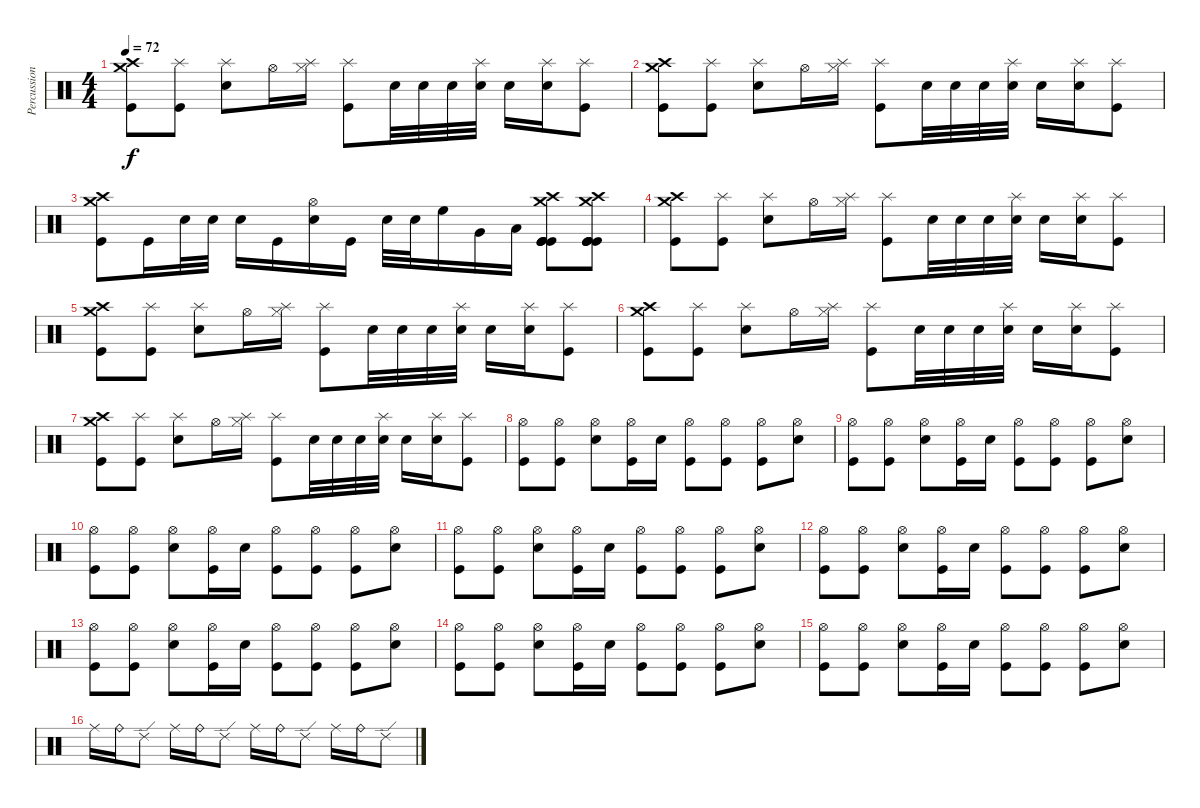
\track ("Percussions" "Percussion") {instrument percussion}
\staff {score}
\articulation defaults
\ts (4 4)
\tempo 72
\clef neutral
\ks c
("Crash medium (hit)" "Crash high (hit)" "Kick (hit)").8{dy f} ("Splash (hit)" "Kick (hit)").8 ("Splash (hit)" "Electric Snare (hit)").8 "Hi-Hat (open)".16 ("Hi-Hat (closed)" "Splash (hit)").16 ("Splash (hit)" "Kick (hit)").8 "Electric Snare (hit)".32 "Electric Snare (hit)".32 "Electric Snare (hit)".32 ("Splash (hit)" "Electric Snare (hit)").32 "Electric Snare (hit)".16 ("Splash (hit)" "Electric Snare (hit)").16 ("Splash (hit)" "Kick (hit)").8 |
("Crash medium (hit)" "Crash high (hit)" "Kick (hit)").8 ("Splash (hit)" "Kick (hit)").8 ("Splash (hit)" "Electric Snare (hit)").8 "Hi-Hat (open)".16 ("Hi-Hat (closed)" "Splash (hit)").16 ("Splash (hit)" "Kick (hit)").8 "Electric Snare (hit)".32 "Electric Snare (hit)".32 "Electric Snare (hit)".32 ("Splash (hit)" "Electric Snare (hit)").32 "Electric Snare (hit)".16 ("Splash (hit)" "Electric Snare (hit)").16 ("Splash (hit)" "Kick (hit)").8 |
("Crash medium (hit)" "Crash high (hit)" "Kick (hit)").8 "Kick (hit)".16 "Electric Snare (hit)".32 "Snare (hit) 2".32 "Electric Snare (hit)".16 "Kick (hit)".16 ("Hi-Hat (open)" "Electric Snare (hit)").16 "Kick (hit)".16 "Electric Snare (hit)".32 "Snare (hit) 2".32 "High Floor Tom (hit)".16 "Very Low Tom (hit)".16 "Low Floor Tom (hit)".16 ("Crash medium (hit)" "Crash high (hit)" "Kick (hit)" "Kick (hit)" "Kick (hit)" "Kick (hit)").8 ("Crash medium (hit)" "Crash high (hit)" "Kick (hit)" "Kick (hit)" "Kick (hit)" "Kick (hit)").8 |
("Crash medium (hit)" "Crash high (hit)" "Kick (hit)").8 ("Splash (hit)" "Kick (hit)").8 ("Splash (hit)" "Electric Snare (hit)").8 "Hi-Hat (open)".16 ("Hi-Hat (closed)" "Splash (hit)").16 ("Splash (hit)" "Kick (hit)").8 "Electric Snare (hit)".32 "Electric Snare (hit)".32 "Electric Snare (hit)".32 ("Splash (hit)" "Electric Snare (hit)").32 "Electric Snare (hit)".16 ("Splash (hit)" "Electric Snare (hit)").16 ("Splash (hit)" "Kick (hit)").8 |
("Crash medium (hit)" "Crash high (hit)" "Kick (hit)").8 ("Splash (hit)" "Kick (hit)").8 ("Splash (hit)" "Electric Snare (hit)").8 "Hi-Hat (open)".16 ("Hi-Hat (closed)" "Splash (hit)").16 ("Splash (hit)" "Kick (hit)").8 "Electric Snare (hit)".32 "Electric Snare (hit)".32 "Electric Snare (hit)".32 ("Splash (hit)" "Electric Snare (hit)").32 "Electric Snare (hit)".16 ("Splash (hit)" "Electric Snare (hit)").16 ("Splash (hit)" "Kick (hit)").8 |
("Crash medium (hit)" "Crash high (hit)" "Kick (hit)").8 ("Splash (hit)" "Kick (hit)").8 ("Splash (hit)" "Electric Snare (hit)").8 "Hi-Hat (open)".16 ("Hi-Hat (closed)" "Splash (hit)").16 ("Splash (hit)" "Kick (hit)").8 "Electric Snare (hit)".32 "Electric Snare (hit)".32 "Electric Snare (hit)".32 ("Splash (hit)" "Electric Snare (hit)").32 "Electric Snare (hit)".16 ("Splash (hit)" "Electric Snare (hit)").16 ("Splash (hit)" "Kick (hit)").8 |
("Crash medium (hit)" "Crash high (hit)" "Kick (hit)").8 ("Splash (hit)" "Kick (hit)").8 ("Splash (hit)" "Electric Snare (hit)").8 "Hi-Hat (open)".16 ("Hi-Hat (closed)" "Splash (hit)").16 ("Splash (hit)" "Kick (hit)").8 "Electric Snare (hit)".32 "Electric Snare (hit)".32 "Electric Snare (hit)".32 ("Splash (hit)" "Electric Snare (hit)").32 "Electric Snare (hit)".16 ("Splash (hit)" "Electric Snare (hit)").16 ("Splash (hit)" "Kick (hit)").8 |
("Hi-Hat (open)" "Kick (hit)").8 ("Hi-Hat (open)" "Kick (hit)").8 ("Hi-Hat (open)" "Electric Snare (hit)").8 ("Hi-Hat (open)" "Kick (hit)").16 "Electric Snare (hit)".16 ("Hi-Hat (open)" "Kick (hit)").8 ("Hi-Hat (open)" "Kick (hit)").8 ("Hi-Hat (open)" "Kick (hit)").8 ("Hi-Hat (open)" "Electric Snare (hit)").8 |
("Hi-Hat (open)" "Kick (hit)").8 ("Hi-Hat (open)" "Kick (hit)").8 ("Hi-Hat (open)" "Electric Snare (hit)").8 ("Hi-Hat (open)" "Kick (hit)").16 "Electric Snare (hit)".16 ("Hi-Hat (open)" "Kick (hit)").8 ("Hi-Hat (open)" "Kick (hit)").8 ("Hi-Hat (open)" "Kick (hit)").8 ("Hi-Hat (open)" "Electric Snare (hit)").8 |
("Hi-Hat (open)" "Kick (hit)").8 ("Hi-Hat (open)" "Kick (hit)").8 ("Hi-Hat (open)" "Electric Snare (hit)").8 ("Hi-Hat (open)" "Kick (hit)").16 "Electric Snare (hit)".16 ("Hi-Hat (open)" "Kick (hit)").8 ("Hi-Hat (open)" "Kick (hit)").8 ("Hi-Hat (open)" "Kick (hit)").8 ("Hi-Hat (open)" "Electric Snare (hit)").8 |
("Hi-Hat (open)" "Kick (hit)").8 ("Hi-Hat (open)" "Kick (hit)").8 ("Hi-Hat (open)" "Electric Snare (hit)").8 ("Hi-Hat (open)" "Kick (hit)").16 "Electric Snare (hit)".16 ("Hi-Hat (open)" "Kick (hit)").8 ("Hi-Hat (open)" "Kick (hit)").8 ("Hi-Hat (open)" "Kick (hit)").8 ("Hi-Hat (open)" "Electric Snare (hit)").8 |
("Hi-Hat (open)" "Kick (hit)").8 ("Hi-Hat (open)" "Kick (hit)").8 ("Hi-Hat (open)" "Electric Snare (hit)").8 ("Hi-Hat (open)" "Kick (hit)").16 "Electric Snare (hit)".16 ("Hi-Hat (open)" "Kick (hit)").8 ("Hi-Hat (open)" "Kick (hit)").8 ("Hi-Hat (open)" "Kick (hit)").8 ("Hi-Hat (open)" "Electric Snare (hit)").8 |
("Hi-Hat (open)" "Kick (hit)").8 ("Hi-Hat (open)" "Kick (hit)").8 ("Hi-Hat (open)" "Electric Snare (hit)").8 ("Hi-Hat (open)" "Kick (hit)").16 "Electric Snare (hit)".16 ("Hi-Hat (open)" "Kick (hit)").8 ("Hi-Hat (open)" "Kick (hit)").8 ("Hi-Hat (open)" "Kick (hit)").8 ("Hi-Hat (open)" "Electric Snare (hit)").8 |
("Hi-Hat (open)" "Kick (hit)").8 ("Hi-Hat (open)" "Kick (hit)").8 ("Hi-Hat (open)" "Electric Snare (hit)").8 ("Hi-Hat (open)" "Kick (hit)").16 "Electric Snare (hit)".16 ("Hi-Hat (open)" "Kick (hit)").8 ("Hi-Hat (open)" "Kick (hit)").8 ("Hi-Hat (open)" "Kick (hit)").8 ("Hi-Hat (open)" "Electric Snare (hit)").8 |
("Hi-Hat (open)" "Kick (hit)").8 ("Hi-Hat (open)" "Kick (hit)").8 ("Hi-Hat (open)" "Electric Snare (hit)").8 ("Hi-Hat (open)" "Kick (hit)").16 "Electric Snare (hit)".16 ("Hi-Hat (open)" "Kick (hit)").8 ("Hi-Hat (open)" "Kick (hit)").8 ("Hi-Hat (open)" "Kick (hit)").8 ("Hi-Hat (open)" "Electric Snare (hit)").8 |
"Ride (middle)".16 "Ride (bell)".16 "Ride (edge) 2".8 "Ride (middle)".16 "Ride (bell)".16 "Ride (edge) 2".8 "Ride (middle)".16 "Ride (bell)".16 "Ride (edge) 2".8 "Ride (middle)".16 "Ride (bell)".16 "Ride (edge) 2".8
